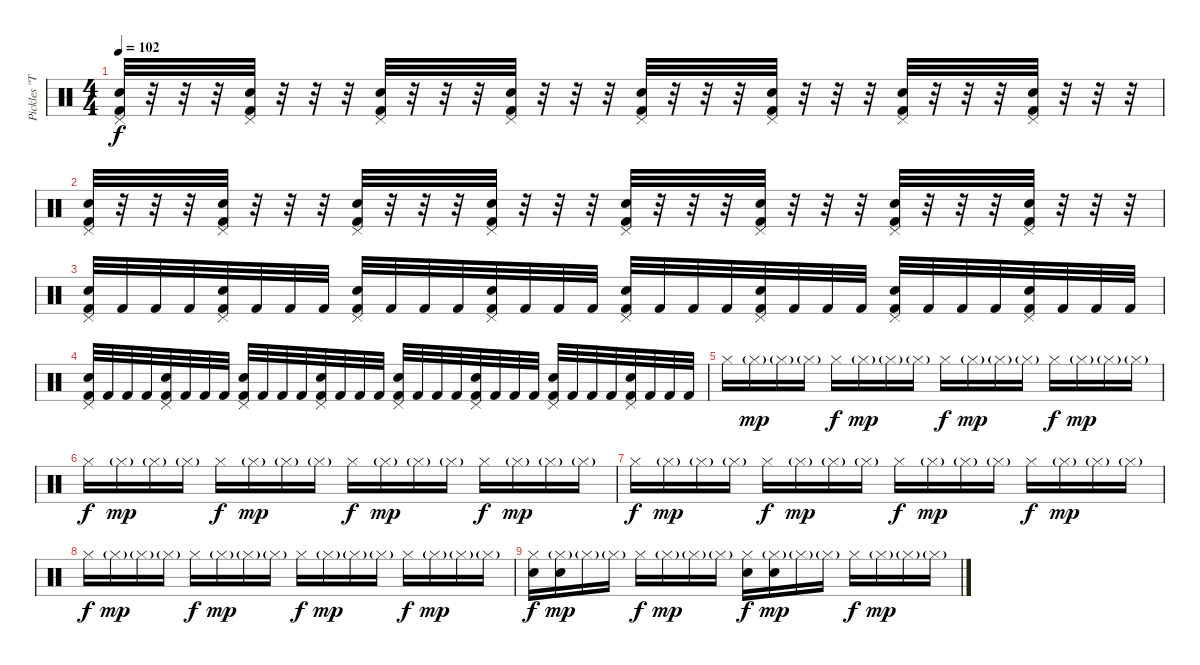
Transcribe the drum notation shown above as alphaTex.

\track ("Pickles \"The Drummer\"" "Pickles \"T") {instrument percussion}
\staff {score}
\articulation defaults
\ts (4 4)
\tempo 102
\clef neutral
\ks c
("Electric Snare (hit)" "Pedal Hi-Hat (hit)" "Kick (hit) 2").32{dy f} r.32 r.32 r.32 ("Electric Snare (hit)" "Pedal Hi-Hat (hit)" "Kick (hit) 2").32 r.32 r.32 r.32 ("Electric Snare (hit)" "Pedal Hi-Hat (hit)" "Kick (hit) 2").32 r.32 r.32 r.32 ("Electric Snare (hit)" "Pedal Hi-Hat (hit)" "Kick (hit) 2").32 r.32 r.32 r.32 ("Electric Snare (hit)" "Pedal Hi-Hat (hit)" "Kick (hit) 2").32 r.32 r.32 r.32 ("Electric Snare (hit)" "Pedal Hi-Hat (hit)" "Kick (hit) 2").32 r.32 r.32 r.32 ("Electric Snare (hit)" "Pedal Hi-Hat (hit)" "Kick (hit) 2").32 r.32 r.32 r.32 ("Electric Snare (hit)" "Pedal Hi-Hat (hit)" "Kick (hit) 2").32 r.32 r.32 r.32 |
("Electric Snare (hit)" "Pedal Hi-Hat (hit)" "Kick (hit) 2").32 r.32 r.32 r.32 ("Electric Snare (hit)" "Pedal Hi-Hat (hit)" "Kick (hit) 2").32 r.32 r.32 r.32 ("Electric Snare (hit)" "Pedal Hi-Hat (hit)" "Kick (hit) 2").32 r.32 r.32 r.32 ("Electric Snare (hit)" "Pedal Hi-Hat (hit)" "Kick (hit) 2").32 r.32 r.32 r.32 ("Electric Snare (hit)" "Pedal Hi-Hat (hit)" "Kick (hit) 2").32 r.32 r.32 r.32 ("Electric Snare (hit)" "Pedal Hi-Hat (hit)" "Kick (hit) 2").32 r.32 r.32 r.32 ("Electric Snare (hit)" "Pedal Hi-Hat (hit)" "Kick (hit) 2").32 r.32 r.32 r.32 ("Electric Snare (hit)" "Pedal Hi-Hat (hit)" "Kick (hit) 2").32 r.32 r.32 r.32 |
("Pedal Hi-Hat (hit)" "Electric Snare (hit)" "Kick (hit) 2").32 "Kick (hit) 2".32 "Kick (hit) 2".32 "Kick (hit) 2".32 ("Pedal Hi-Hat (hit)" "Electric Snare (hit)" "Kick (hit) 2").32 "Kick (hit) 2".32 "Kick (hit) 2".32 "Kick (hit) 2".32 ("Pedal Hi-Hat (hit)" "Electric Snare (hit)" "Kick (hit) 2").32 "Kick (hit) 2".32 "Kick (hit) 2".32 "Kick (hit) 2".32 ("Pedal Hi-Hat (hit)" "Electric Snare (hit)" "Kick (hit) 2").32 "Kick (hit) 2".32 "Kick (hit) 2".32 "Kick (hit) 2".32 ("Pedal Hi-Hat (hit)" "Electric Snare (hit)" "Kick (hit) 2").32 "Kick (hit) 2".32 "Kick (hit) 2".32 "Kick (hit) 2".32 ("Pedal Hi-Hat (hit)" "Electric Snare (hit)" "Kick (hit) 2").32 "Kick (hit) 2".32 "Kick (hit) 2".32 "Kick (hit) 2".32 ("Pedal Hi-Hat (hit)" "Electric Snare (hit)" "Kick (hit) 2").32 "Kick (hit) 2".32 "Kick (hit) 2".32 "Kick (hit) 2".32 ("Pedal Hi-Hat (hit)" "Electric Snare (hit)" "Kick (hit) 2").32 "Kick (hit) 2".32 "Kick (hit) 2".32 "Kick (hit) 2".32 |
("Pedal Hi-Hat (hit)" "Electric Snare (hit)" "Kick (hit) 2").32 "Kick (hit) 2".32 "Kick (hit) 2".32 "Kick (hit) 2".32 ("Pedal Hi-Hat (hit)" "Electric Snare (hit)" "Kick (hit) 2").32 "Kick (hit) 2".32 "Kick (hit) 2".32 "Kick (hit) 2".32 ("Pedal Hi-Hat (hit)" "Electric Snare (hit)" "Kick (hit) 2").32 "Kick (hit) 2".32 "Kick (hit) 2".32 "Kick (hit) 2".32 ("Pedal Hi-Hat (hit)" "Electric Snare (hit)" "Kick (hit) 2").32 "Kick (hit) 2".32 "Kick (hit) 2".32 "Kick (hit) 2".32 ("Pedal Hi-Hat (hit)" "Electric Snare (hit)" "Kick (hit) 2").32 "Kick (hit) 2".32 "Kick (hit) 2".32 "Kick (hit) 2".32 ("Pedal Hi-Hat (hit)" "Electric Snare (hit)" "Kick (hit) 2").32 "Kick (hit) 2".32 "Kick (hit) 2".32 "Kick (hit) 2".32 ("Pedal Hi-Hat (hit)" "Electric Snare (hit)" "Kick (hit) 2").32 "Kick (hit) 2".32 "Kick (hit) 2".32 "Kick (hit) 2".32 ("Pedal Hi-Hat (hit)" "Electric Snare (hit)" "Kick (hit) 2").32 "Kick (hit) 2".32 "Kick (hit) 2".32 "Kick (hit) 2".32 |
"Hi-Hat (closed)".16 "Hi-Hat (closed)"{g}.16{dy mp} "Hi-Hat (closed)"{g}.16 "Hi-Hat (closed)"{g}.16 "Hi-Hat (closed)".16{dy f} "Hi-Hat (closed)"{g}.16{dy mp} "Hi-Hat (closed)"{g}.16 "Hi-Hat (closed)"{g}.16 "Hi-Hat (closed)".16{dy f} "Hi-Hat (closed)"{g}.16{dy mp} "Hi-Hat (closed)"{g}.16 "Hi-Hat (closed)"{g}.16 "Hi-Hat (closed)".16{dy f} "Hi-Hat (closed)"{g}.16{dy mp} "Hi-Hat (closed)"{g}.16 "Hi-Hat (closed)"{g}.16 |
"Hi-Hat (closed)".16{dy f} "Hi-Hat (closed)"{g}.16{dy mp} "Hi-Hat (closed)"{g}.16 "Hi-Hat (closed)"{g}.16 "Hi-Hat (closed)".16{dy f} "Hi-Hat (closed)"{g}.16{dy mp} "Hi-Hat (closed)"{g}.16 "Hi-Hat (closed)"{g}.16 "Hi-Hat (closed)".16{dy f} "Hi-Hat (closed)"{g}.16{dy mp} "Hi-Hat (closed)"{g}.16 "Hi-Hat (closed)"{g}.16 "Hi-Hat (closed)".16{dy f} "Hi-Hat (closed)"{g}.16{dy mp} "Hi-Hat (closed)"{g}.16 "Hi-Hat (closed)"{g}.16 |
"Hi-Hat (closed)".16{dy f} "Hi-Hat (closed)"{g}.16{dy mp} "Hi-Hat (closed)"{g}.16 "Hi-Hat (closed)"{g}.16 "Hi-Hat (closed)".16{dy f} "Hi-Hat (closed)"{g}.16{dy mp} "Hi-Hat (closed)"{g}.16 "Hi-Hat (closed)"{g}.16 "Hi-Hat (closed)".16{dy f} "Hi-Hat (closed)"{g}.16{dy mp} "Hi-Hat (closed)"{g}.16 "Hi-Hat (closed)"{g}.16 "Hi-Hat (closed)".16{dy f} "Hi-Hat (closed)"{g}.16{dy mp} "Hi-Hat (closed)"{g}.16 "Hi-Hat (closed)"{g}.16 |
"Hi-Hat (closed)".16{dy f} "Hi-Hat (closed)"{g}.16{dy mp} "Hi-Hat (closed)"{g}.16 "Hi-Hat (closed)"{g}.16 "Hi-Hat (closed)".16{dy f} "Hi-Hat (closed)"{g}.16{dy mp} "Hi-Hat (closed)"{g}.16 "Hi-Hat (closed)"{g}.16 "Hi-Hat (closed)".16{dy f} "Hi-Hat (closed)"{g}.16{dy mp} "Hi-Hat (closed)"{g}.16 "Hi-Hat (closed)"{g}.16 "Hi-Hat (closed)".16{dy f} "Hi-Hat (closed)"{g}.16{dy mp} "Hi-Hat (closed)"{g}.16 "Hi-Hat (closed)"{g}.16 |
("Hi-Hat (closed)" "Electric Snare (hit)").16{dy f volume 0} ("Hi-Hat (closed)"{g} "Electric Snare (hit)").16{dy mp} "Hi-Hat (closed)"{g}.16 "Hi-Hat (closed)"{g}.16 "Hi-Hat (closed)".16{dy f} "Hi-Hat (closed)"{g}.16{dy mp} "Hi-Hat (closed)"{g}.16 "Hi-Hat (closed)"{g}.16 ("Hi-Hat (closed)" "Electric Snare (hit)").16{dy f} ("Hi-Hat (closed)"{g} "Electric Snare (hit)").16{dy mp} "Hi-Hat (closed)"{g}.16 "Hi-Hat (closed)"{g}.16 "Hi-Hat (closed)".16{dy f} "Hi-Hat (closed)"{g}.16{dy mp} "Hi-Hat (closed)"{g}.16 "Hi-Hat (closed)"{g}.16
